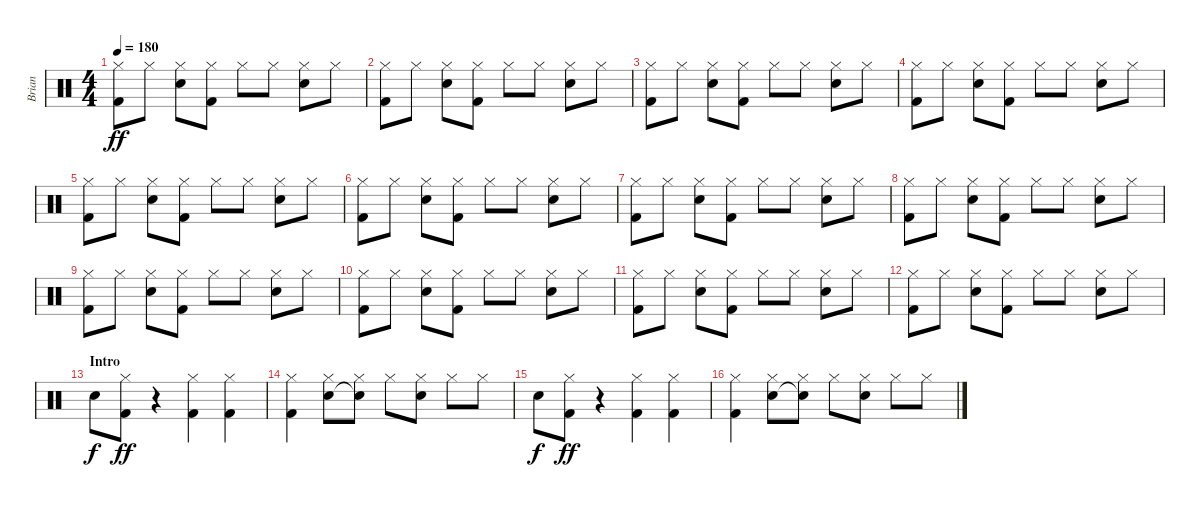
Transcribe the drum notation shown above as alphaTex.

\track ("Brian" "Brian") {instrument percussion}
\staff {score}
\articulation defaults
\ts (4 4)
\tempo 180
\clef neutral
\ks c
("Hi-Hat (closed)" "Kick (hit) 2").8{dy ff} "Hi-Hat (closed)".8 ("Hi-Hat (closed)" "Snare (hit) 2").8 ("Hi-Hat (closed)" "Kick (hit) 2").8 "Hi-Hat (closed)".8 "Hi-Hat (closed)".8 ("Hi-Hat (closed)" "Snare (hit) 2").8 "Hi-Hat (closed)".8 |
("Hi-Hat (closed)" "Kick (hit) 2").8 "Hi-Hat (closed)".8 ("Hi-Hat (closed)" "Snare (hit) 2").8 ("Hi-Hat (closed)" "Kick (hit) 2").8 "Hi-Hat (closed)".8 "Hi-Hat (closed)".8 ("Hi-Hat (closed)" "Snare (hit) 2").8 "Hi-Hat (closed)".8 |
("Hi-Hat (closed)" "Kick (hit) 2").8 "Hi-Hat (closed)".8 ("Hi-Hat (closed)" "Snare (hit) 2").8 ("Hi-Hat (closed)" "Kick (hit) 2").8 "Hi-Hat (closed)".8 "Hi-Hat (closed)".8 ("Hi-Hat (closed)" "Snare (hit) 2").8 "Hi-Hat (closed)".8 |
("Hi-Hat (closed)" "Kick (hit) 2").8 "Hi-Hat (closed)".8 ("Hi-Hat (closed)" "Snare (hit) 2").8 ("Hi-Hat (closed)" "Kick (hit) 2").8 "Hi-Hat (closed)".8 "Hi-Hat (closed)".8 ("Hi-Hat (closed)" "Snare (hit) 2").8 "Hi-Hat (closed)".8 |
("Hi-Hat (closed)" "Kick (hit) 2").8 "Hi-Hat (closed)".8 ("Hi-Hat (closed)" "Snare (hit) 2").8 ("Hi-Hat (closed)" "Kick (hit) 2").8 "Hi-Hat (closed)".8 "Hi-Hat (closed)".8 ("Hi-Hat (closed)" "Snare (hit) 2").8 "Hi-Hat (closed)".8 |
("Hi-Hat (closed)" "Kick (hit) 2").8 "Hi-Hat (closed)".8 ("Hi-Hat (closed)" "Snare (hit) 2").8 ("Hi-Hat (closed)" "Kick (hit) 2").8 "Hi-Hat (closed)".8 "Hi-Hat (closed)".8 ("Hi-Hat (closed)" "Snare (hit) 2").8 "Hi-Hat (closed)".8 |
("Hi-Hat (closed)" "Kick (hit) 2").8 "Hi-Hat (closed)".8 ("Hi-Hat (closed)" "Snare (hit) 2").8 ("Hi-Hat (closed)" "Kick (hit) 2").8 "Hi-Hat (closed)".8 "Hi-Hat (closed)".8 ("Hi-Hat (closed)" "Snare (hit) 2").8 "Hi-Hat (closed)".8 |
("Hi-Hat (closed)" "Kick (hit) 2").8 "Hi-Hat (closed)".8 ("Hi-Hat (closed)" "Snare (hit) 2").8 ("Hi-Hat (closed)" "Kick (hit) 2").8 "Hi-Hat (closed)".8 "Hi-Hat (closed)".8 ("Hi-Hat (closed)" "Snare (hit) 2").8 "Hi-Hat (closed)".8 |
("Hi-Hat (closed)" "Kick (hit) 2").8 "Hi-Hat (closed)".8 ("Hi-Hat (closed)" "Snare (hit) 2").8 ("Hi-Hat (closed)" "Kick (hit) 2").8 "Hi-Hat (closed)".8 "Hi-Hat (closed)".8 ("Hi-Hat (closed)" "Snare (hit) 2").8 "Hi-Hat (closed)".8 |
("Hi-Hat (closed)" "Kick (hit) 2").8 "Hi-Hat (closed)".8 ("Hi-Hat (closed)" "Snare (hit) 2").8 ("Hi-Hat (closed)" "Kick (hit) 2").8 "Hi-Hat (closed)".8 "Hi-Hat (closed)".8 ("Hi-Hat (closed)" "Snare (hit) 2").8 "Hi-Hat (closed)".8 |
("Hi-Hat (closed)" "Kick (hit) 2").8 "Hi-Hat (closed)".8 ("Hi-Hat (closed)" "Snare (hit) 2").8 ("Hi-Hat (closed)" "Kick (hit) 2").8 "Hi-Hat (closed)".8 "Hi-Hat (closed)".8 ("Hi-Hat (closed)" "Snare (hit) 2").8 "Hi-Hat (closed)".8 |
("Hi-Hat (closed)" "Kick (hit) 2").8 "Hi-Hat (closed)".8 ("Hi-Hat (closed)" "Snare (hit) 2").8 ("Hi-Hat (closed)" "Kick (hit) 2").8 "Hi-Hat (closed)".8 "Hi-Hat (closed)".8 ("Hi-Hat (closed)" "Snare (hit) 2").8 "Hi-Hat (closed)".8 |
\section ("" "Intro")
"Snare (hit) 2".8{dy f} ("Hi-Hat (closed)" "Kick (hit) 2").8{dy ff} r.4 ("Hi-Hat (closed)" "Kick (hit) 2").4 ("Hi-Hat (closed)" "Kick (hit) 2").4 |
("Hi-Hat (closed)" "Kick (hit) 2").4 ("Hi-Hat (closed)" "Snare (hit) 2").8 ("Hi-Hat (closed)" "Electric Snare (hit)"{t}).8 "Hi-Hat (closed)".8 ("Hi-Hat (closed)" "Snare (hit) 2").8 "Hi-Hat (closed)".8 "Hi-Hat (closed)".8 |
"Snare (hit) 2".8{dy f} ("Hi-Hat (closed)" "Kick (hit) 2").8{dy ff} r.4 ("Hi-Hat (closed)" "Kick (hit) 2").4 ("Hi-Hat (closed)" "Kick (hit) 2").4 |
("Hi-Hat (closed)" "Kick (hit) 2").4 ("Hi-Hat (closed)" "Snare (hit) 2").8 ("Hi-Hat (closed)" "Electric Snare (hit)"{t}).8 "Hi-Hat (closed)".8 ("Hi-Hat (closed)" "Snare (hit) 2").8 "Hi-Hat (closed)".8 "Hi-Hat (closed)".8
